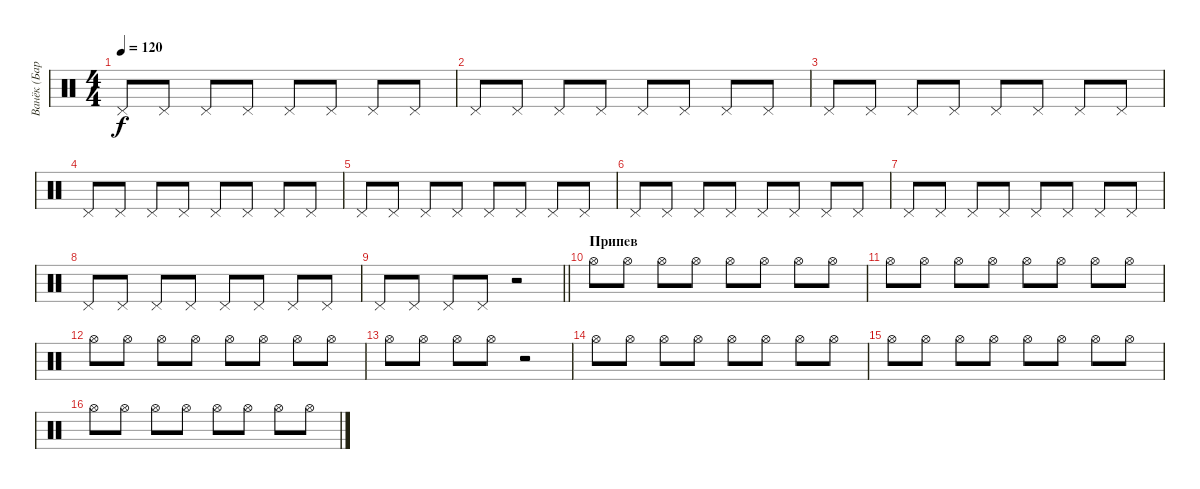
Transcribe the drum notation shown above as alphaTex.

\track ("Ванёк (Барабанщик)" "Ванёк (Бар") {instrument percussion}
\staff {score}
\articulation defaults
\ts (4 4)
\tempo 120
\clef neutral
\ks c "Pedal Hi-Hat (hit)".8{dy f} "Pedal Hi-Hat (hit)".8 "Pedal Hi-Hat (hit)".8 "Pedal Hi-Hat (hit)".8 "Pedal Hi-Hat (hit)".8 "Pedal Hi-Hat (hit)".8 "Pedal Hi-Hat (hit)".8 "Pedal Hi-Hat (hit)".8
|
"Pedal Hi-Hat (hit)".8 "Pedal Hi-Hat (hit)".8 "Pedal Hi-Hat (hit)".8 "Pedal Hi-Hat (hit)".8 "Pedal Hi-Hat (hit)".8 "Pedal Hi-Hat (hit)".8 "Pedal Hi-Hat (hit)".8 "Pedal Hi-Hat (hit)".8 |
"Pedal Hi-Hat (hit)".8 "Pedal Hi-Hat (hit)".8 "Pedal Hi-Hat (hit)".8 "Pedal Hi-Hat (hit)".8 "Pedal Hi-Hat (hit)".8 "Pedal Hi-Hat (hit)".8 "Pedal Hi-Hat (hit)".8 "Pedal Hi-Hat (hit)".8 |
"Pedal Hi-Hat (hit)".8 "Pedal Hi-Hat (hit)".8 "Pedal Hi-Hat (hit)".8 "Pedal Hi-Hat (hit)".8 "Pedal Hi-Hat (hit)".8 "Pedal Hi-Hat (hit)".8 "Pedal Hi-Hat (hit)".8 "Pedal Hi-Hat (hit)".8 |
"Pedal Hi-Hat (hit)".8 "Pedal Hi-Hat (hit)".8 "Pedal Hi-Hat (hit)".8 "Pedal Hi-Hat (hit)".8 "Pedal Hi-Hat (hit)".8 "Pedal Hi-Hat (hit)".8 "Pedal Hi-Hat (hit)".8 "Pedal Hi-Hat (hit)".8 |
"Pedal Hi-Hat (hit)".8 "Pedal Hi-Hat (hit)".8 "Pedal Hi-Hat (hit)".8 "Pedal Hi-Hat (hit)".8 "Pedal Hi-Hat (hit)".8 "Pedal Hi-Hat (hit)".8 "Pedal Hi-Hat (hit)".8 "Pedal Hi-Hat (hit)".8 |
"Pedal Hi-Hat (hit)".8 "Pedal Hi-Hat (hit)".8 "Pedal Hi-Hat (hit)".8 "Pedal Hi-Hat (hit)".8 "Pedal Hi-Hat (hit)".8 "Pedal Hi-Hat (hit)".8 "Pedal Hi-Hat (hit)".8 "Pedal Hi-Hat (hit)".8 |
"Pedal Hi-Hat (hit)".8 "Pedal Hi-Hat (hit)".8 "Pedal Hi-Hat (hit)".8 "Pedal Hi-Hat (hit)".8 "Pedal Hi-Hat (hit)".8 "Pedal Hi-Hat (hit)".8 "Pedal Hi-Hat (hit)".8 "Pedal Hi-Hat (hit)".8 |
\barLineRight lightlight "Pedal Hi-Hat (hit)".8 "Pedal Hi-Hat (hit)".8 "Pedal Hi-Hat (hit)".8 "Pedal Hi-Hat (hit)".8
r.2 |
\section ("" "Припев")
"Hi-Hat (open)".8 "Hi-Hat (open)".8 "Hi-Hat (open)".8 "Hi-Hat (open)".8 "Hi-Hat (open)".8 "Hi-Hat (open)".8 "Hi-Hat (open)".8 "Hi-Hat (open)".8 |
"Hi-Hat (open)".8 "Hi-Hat (open)".8 "Hi-Hat (open)".8 "Hi-Hat (open)".8 "Hi-Hat (open)".8 "Hi-Hat (open)".8 "Hi-Hat (open)".8 "Hi-Hat (open)".8 |
"Hi-Hat (open)".8 "Hi-Hat (open)".8 "Hi-Hat (open)".8 "Hi-Hat (open)".8 "Hi-Hat (open)".8 "Hi-Hat (open)".8 "Hi-Hat (open)".8 "Hi-Hat (open)".8 |
"Hi-Hat (open)".8 "Hi-Hat (open)".8 "Hi-Hat (open)".8 "Hi-Hat (open)".8 r.2 |
"Hi-Hat (open)".8 "Hi-Hat (open)".8 "Hi-Hat (open)".8 "Hi-Hat (open)".8 "Hi-Hat (open)".8 "Hi-Hat (open)".8 "Hi-Hat (open)".8 "Hi-Hat (open)".8 |
"Hi-Hat (open)".8 "Hi-Hat (open)".8 "Hi-Hat (open)".8 "Hi-Hat (open)".8 "Hi-Hat (open)".8 "Hi-Hat (open)".8 "Hi-Hat (open)".8 "Hi-Hat (open)".8 |
"Hi-Hat (open)".8 "Hi-Hat (open)".8 "Hi-Hat (open)".8 "Hi-Hat (open)".8 "Hi-Hat (open)".8 "Hi-Hat (open)".8 "Hi-Hat (open)".8 "Hi-Hat (open)".8
